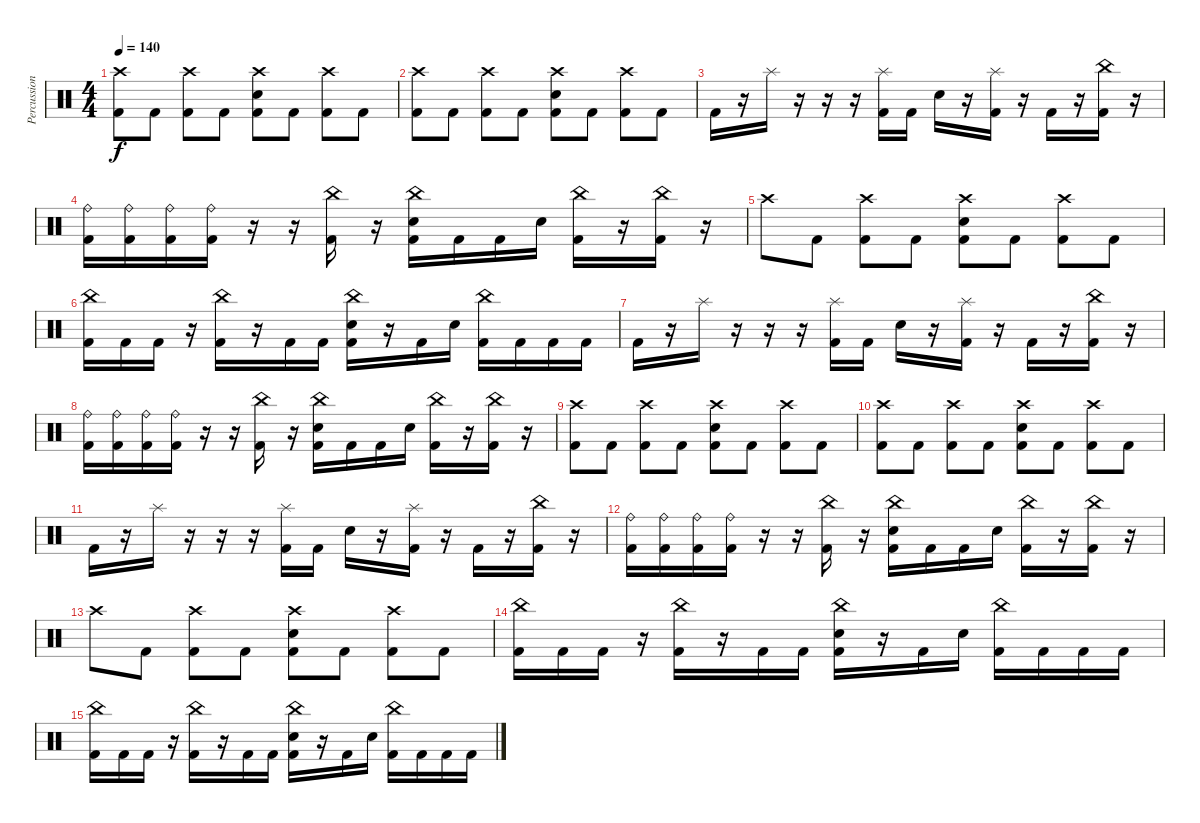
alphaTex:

\track ("Percussion" "Percussion") {instrument percussion}
\staff {score}
\articulation defaults
\ts (4 4)
\tempo 140
\clef neutral
\ks c
("Crash high (hit)" "Kick (hit) 2").8{dy f} "Kick (hit) 2".8 ("Crash high (hit)" "Kick (hit) 2").8 "Kick (hit) 2".8 ("Crash high (hit)" "Snare (hit) 2" "Kick (hit) 2").8 "Kick (hit) 2".8 ("Crash high (hit)" "Kick (hit) 2").8 "Kick (hit) 2".8 |
("Crash high (hit)" "Kick (hit) 2").8 "Kick (hit) 2".8 ("Crash high (hit)" "Kick (hit) 2").8 "Kick (hit) 2".8 ("Crash high (hit)" "Snare (hit) 2" "Kick (hit) 2").8 "Kick (hit) 2".8 ("Crash high (hit)" "Kick (hit) 2").8 "Kick (hit) 2".8 |
"Kick (hit) 2".16 r.16 "Splash (hit)".16 r.16 r.16 r.16 ("Splash (hit)" "Kick (hit) 2").16 "Kick (hit) 2".16 "Snare (hit) 2".16 r.16 ("Splash (hit)" "Kick (hit) 2").16 r.16 "Kick (hit) 2".16 r.16 ("China (hit)" "Kick (hit) 2").16 r.16 |
("Ride (bell)" "Kick (hit) 2").16 ("Ride (bell)" "Kick (hit) 2").16 ("Ride (bell)" "Kick (hit) 2").16 ("Ride (bell)" "Kick (hit) 2").16 r.16 r.16 ("China (hit)" "Kick (hit) 2").16 r.16 ("China (hit)" "Snare (hit) 2" "Kick (hit) 2").16 "Kick (hit) 2".16 "Kick (hit) 2".16 "Snare (hit) 2".16 ("China (hit)" "Kick (hit) 2").16 r.16 ("China (hit)" "Kick (hit) 2").16 r.16 |
"Crash high (hit)".8 "Kick (hit) 2".8 ("Crash high (hit)" "Kick (hit) 2").8 "Kick (hit) 2".8 ("Crash high (hit)" "Snare (hit) 2" "Kick (hit) 2").8 "Kick (hit) 2".8 ("Crash high (hit)" "Kick (hit) 2").8 "Kick (hit) 2".8 |
("China (hit)" "Kick (hit) 2").16 "Kick (hit) 2".16 "Kick (hit) 2".16 r.16 ("China (hit)" "Kick (hit) 2").16 r.16 "Kick (hit) 2".16 "Kick (hit) 2".16 ("China (hit)" "Snare (hit) 2" "Kick (hit) 2").16 r.16 "Kick (hit) 2".16 "Snare (hit) 2".16 ("China (hit)" "Kick (hit) 2").16 "Kick (hit) 2".16 "Kick (hit) 2".16 "Kick (hit) 2".16 |
"Kick (hit) 2".16 r.16 "Splash (hit)".16 r.16 r.16 r.16 ("Splash (hit)" "Kick (hit) 2").16 "Kick (hit) 2".16 "Snare (hit) 2".16 r.16 ("Splash (hit)" "Kick (hit) 2").16 r.16 "Kick (hit) 2".16 r.16 ("China (hit)" "Kick (hit) 2").16 r.16 |
("Ride (bell)" "Kick (hit) 2").16 ("Ride (bell)" "Kick (hit) 2").16 ("Ride (bell)" "Kick (hit) 2").16 ("Ride (bell)" "Kick (hit) 2").16 r.16 r.16 ("China (hit)" "Kick (hit) 2").16 r.16 ("China (hit)" "Snare (hit) 2" "Kick (hit) 2").16 "Kick (hit) 2".16 "Kick (hit) 2".16 "Snare (hit) 2".16 ("China (hit)" "Kick (hit) 2").16 r.16 ("China (hit)" "Kick (hit) 2").16 r.16 |
("Crash high (hit)" "Kick (hit) 2").8 "Kick (hit) 2".8 ("Crash high (hit)" "Kick (hit) 2").8 "Kick (hit) 2".8 ("Crash high (hit)" "Snare (hit) 2" "Kick (hit) 2").8 "Kick (hit) 2".8 ("Crash high (hit)" "Kick (hit) 2").8 "Kick (hit) 2".8 |
("Crash high (hit)" "Kick (hit) 2").8 "Kick (hit) 2".8 ("Crash high (hit)" "Kick (hit) 2").8 "Kick (hit) 2".8 ("Crash high (hit)" "Snare (hit) 2" "Kick (hit) 2").8 "Kick (hit) 2".8 ("Crash high (hit)" "Kick (hit) 2").8 "Kick (hit) 2".8 |
"Kick (hit) 2".16 r.16 "Splash (hit)".16 r.16 r.16 r.16 ("Splash (hit)" "Kick (hit) 2").16 "Kick (hit) 2".16 "Snare (hit) 2".16 r.16 ("Splash (hit)" "Kick (hit) 2").16 r.16 "Kick (hit) 2".16 r.16 ("China (hit)" "Kick (hit) 2").16 r.16 |
("Ride (bell)" "Kick (hit) 2").16 ("Ride (bell)" "Kick (hit) 2").16 ("Ride (bell)" "Kick (hit) 2").16 ("Ride (bell)" "Kick (hit) 2").16 r.16 r.16 ("China (hit)" "Kick (hit) 2").16 r.16 ("China (hit)" "Snare (hit) 2" "Kick (hit) 2").16 "Kick (hit) 2".16 "Kick (hit) 2".16 "Snare (hit) 2".16 ("China (hit)" "Kick (hit) 2").16 r.16 ("China (hit)" "Kick (hit) 2").16 r.16 |
"Crash high (hit)".8 "Kick (hit) 2".8 ("Crash high (hit)" "Kick (hit) 2").8 "Kick (hit) 2".8 ("Crash high (hit)" "Snare (hit) 2" "Kick (hit) 2").8 "Kick (hit) 2".8 ("Crash high (hit)" "Kick (hit) 2").8 "Kick (hit) 2".8 |
("China (hit)" "Kick (hit) 2").16 "Kick (hit) 2".16 "Kick (hit) 2".16 r.16 ("China (hit)" "Kick (hit) 2").16 r.16 "Kick (hit) 2".16 "Kick (hit) 2".16 ("China (hit)" "Snare (hit) 2" "Kick (hit) 2").16 r.16 "Kick (hit) 2".16 "Snare (hit) 2".16 ("China (hit)" "Kick (hit) 2").16 "Kick (hit) 2".16 "Kick (hit) 2".16 "Kick (hit) 2".16 |
("China (hit)" "Kick (hit) 2").16 "Kick (hit) 2".16 "Kick (hit) 2".16 r.16 ("China (hit)" "Kick (hit) 2").16 r.16 "Kick (hit) 2".16 "Kick (hit) 2".16 ("China (hit)" "Snare (hit) 2" "Kick (hit) 2").16 r.16 "Kick (hit) 2".16 "Snare (hit) 2".16 ("China (hit)" "Kick (hit) 2").16 "Kick (hit) 2".16 "Kick (hit) 2".16 "Kick (hit) 2".16
